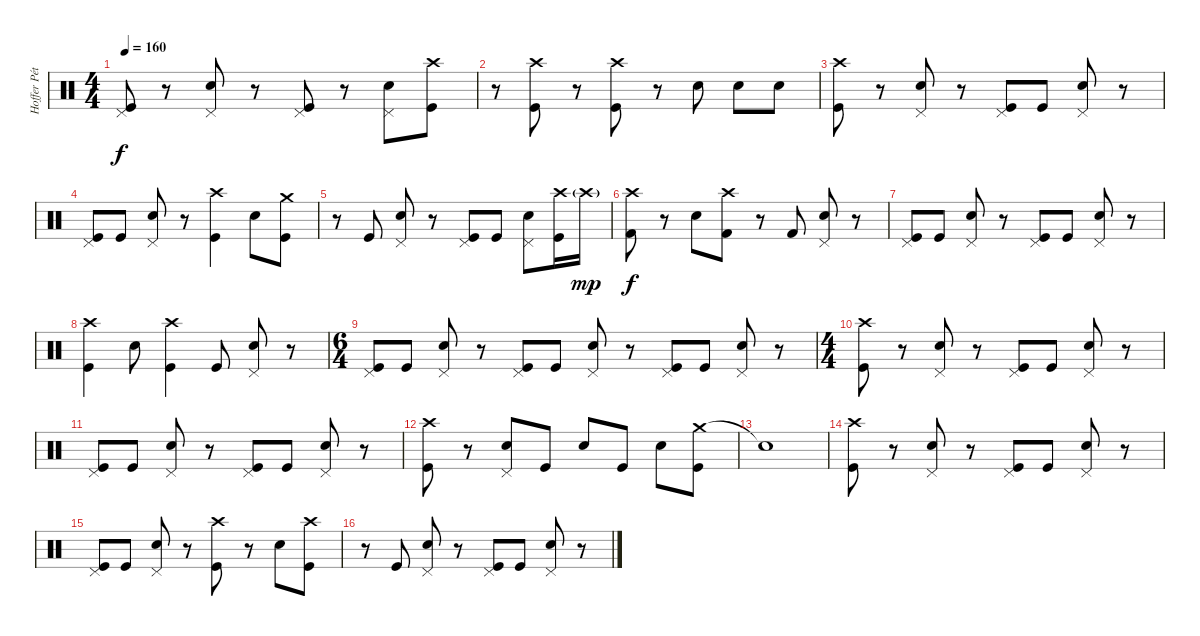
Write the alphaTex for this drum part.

\track ("Hoffer Péter" "Hoffer Pét") {instrument percussion}
\staff {score}
\articulation defaults
\ts (4 4)
\tempo 160
\clef neutral
\ks c
("Pedal Hi-Hat (hit)" "Kick (hit)").8{dy f} r.8 ("Pedal Hi-Hat (hit)" "Electric Snare (hit)").8 r.8 ("Pedal Hi-Hat (hit)" "Kick (hit)").8 r.8 ("Pedal Hi-Hat (hit)" "Electric Snare (hit)").8 ("Crash high (hit)" "Kick (hit)").8 |
r.8 ("Crash high (hit)" "Kick (hit)").8 r.8 ("Crash high (hit)" "Kick (hit)").8 r.8 "Electric Snare (hit)".8 "Electric Snare (hit)".8 "Electric Snare (hit)".8 |
("Crash high (hit)" "Kick (hit)").8 r.8 ("Pedal Hi-Hat (hit)" "Electric Snare (hit)").8 r.8 ("Pedal Hi-Hat (hit)" "Kick (hit)").8 "Kick (hit)".8 ("Pedal Hi-Hat (hit)" "Electric Snare (hit)").8 r.8 |
("Pedal Hi-Hat (hit)" "Kick (hit)").8 "Kick (hit)".8 ("Pedal Hi-Hat (hit)" "Electric Snare (hit)").8 r.8 ("Crash high (hit)" "Kick (hit)").4 "Electric Snare (hit)".8 ("Crash medium (hit)" "Kick (hit)").8 |
r.8 "Kick (hit)".8 ("Pedal Hi-Hat (hit)" "Electric Snare (hit)").8 r.8 ("Pedal Hi-Hat (hit)" "Kick (hit)").8 "Kick (hit)".8 ("Pedal Hi-Hat (hit)" "Electric Snare (hit)").8 ("Crash high (hit)" "Kick (hit)").16 "Crash high (hit)"{g}.16{dy mp} |
("Crash high (hit)" "Kick (hit) 2").8{dy f} r.8 "Electric Snare (hit)".8 ("Crash high (hit)" "Kick (hit) 2").8 r.8 "Kick (hit) 2".8 ("Pedal Hi-Hat (hit)" "Electric Snare (hit)").8 r.8 |
("Pedal Hi-Hat (hit)" "Kick (hit)").8 "Kick (hit)".8 ("Pedal Hi-Hat (hit)" "Electric Snare (hit)").8 r.8 ("Pedal Hi-Hat (hit)" "Kick (hit)").8 "Kick (hit)".8 ("Pedal Hi-Hat (hit)" "Electric Snare (hit)").8 r.8 |
("Crash high (hit)" "Kick (hit)").4 "Electric Snare (hit)".8 ("Crash high (hit)" "Kick (hit)").4 "Kick (hit)".8 ("Pedal Hi-Hat (hit)" "Electric Snare (hit)").8 r.8 |
\ts (6 4)
("Pedal Hi-Hat (hit)" "Kick (hit)").8 "Kick (hit)".8 ("Pedal Hi-Hat (hit)" "Electric Snare (hit)").8 r.8 ("Pedal Hi-Hat (hit)" "Kick (hit)").8 "Kick (hit)".8 ("Pedal Hi-Hat (hit)" "Electric Snare (hit)").8 r.8 ("Pedal Hi-Hat (hit)" "Kick (hit)").8 "Kick (hit)".8 ("Pedal Hi-Hat (hit)" "Electric Snare (hit)").8 r.8 |
\ts (4 4)
("Crash high (hit)" "Kick (hit)").8 r.8 ("Pedal Hi-Hat (hit)" "Electric Snare (hit)").8 r.8 ("Pedal Hi-Hat (hit)" "Kick (hit)").8 "Kick (hit)".8 ("Pedal Hi-Hat (hit)" "Electric Snare (hit)").8 r.8 |
("Pedal Hi-Hat (hit)" "Kick (hit)").8 "Kick (hit)".8 ("Pedal Hi-Hat (hit)" "Electric Snare (hit)").8 r.8 ("Pedal Hi-Hat (hit)" "Kick (hit)").8 "Kick (hit)".8 ("Pedal Hi-Hat (hit)" "Electric Snare (hit)").8 r.8 |
("Crash high (hit)" "Kick (hit)").8 r.8 ("Pedal Hi-Hat (hit)" "Electric Snare (hit)").8 "Kick (hit)".8 "Electric Snare (hit)".8 "Kick (hit)".8 "Electric Snare (hit)".8 ("Crash medium (hit)" "Kick (hit)").8 |
"Snare (hit)"{t}.1 |
("Crash high (hit)" "Kick (hit)").8 r.8 ("Pedal Hi-Hat (hit)" "Electric Snare (hit)").8 r.8 ("Pedal Hi-Hat (hit)" "Kick (hit)").8 "Kick (hit)".8 ("Pedal Hi-Hat (hit)" "Electric Snare (hit)").8 r.8 |
("Pedal Hi-Hat (hit)" "Kick (hit)").8 "Kick (hit)".8 ("Pedal Hi-Hat (hit)" "Electric Snare (hit)").8 r.8 ("Crash high (hit)" "Kick (hit)").8 r.8 "Electric Snare (hit)".8 ("Crash high (hit)" "Kick (hit)").8 |
r.8 "Kick (hit)".8 ("Pedal Hi-Hat (hit)" "Electric Snare (hit)").8 r.8 ("Pedal Hi-Hat (hit)" "Kick (hit)").8 "Kick (hit)".8 ("Pedal Hi-Hat (hit)" "Electric Snare (hit)").8 r.8
